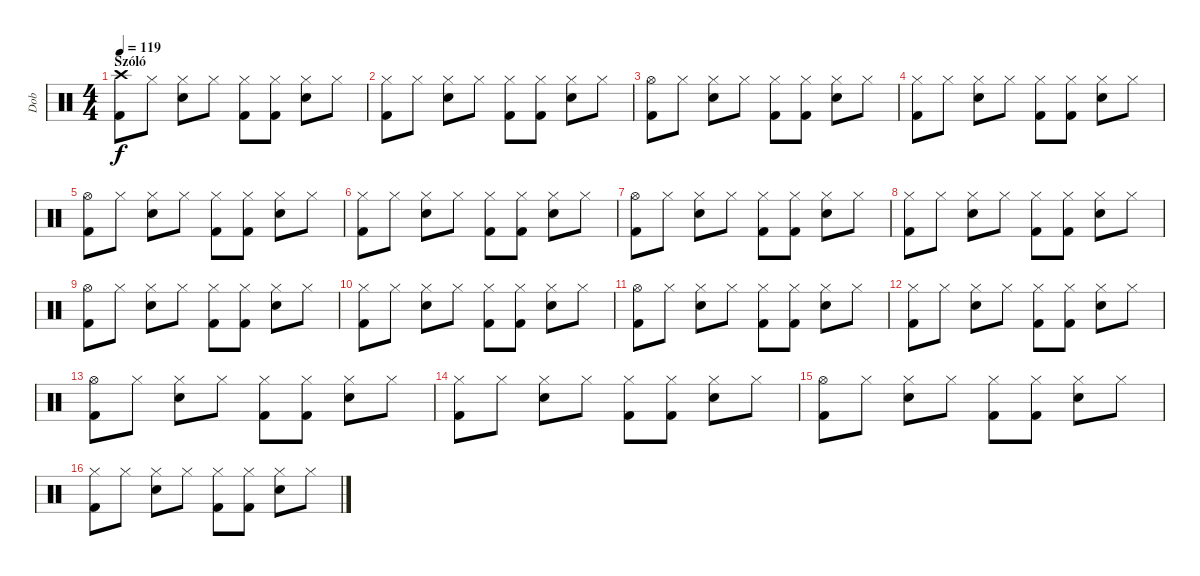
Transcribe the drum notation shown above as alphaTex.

\track ("Dob" "Dob") {instrument percussion}
\staff {score}
\articulation defaults
\ts (4 4)
\section ("" "Szóló")
\tempo 119
\clef neutral
\ks c
("Crash high (hit)" "Kick (hit) 2").8{dy f} "Hi-Hat (closed)".8 ("Hi-Hat (closed)" "Snare (hit) 2").8 "Hi-Hat (closed)".8 ("Hi-Hat (closed)" "Kick (hit) 2").8 ("Hi-Hat (closed)" "Kick (hit) 2").8 ("Hi-Hat (closed)" "Snare (hit) 2").8 "Hi-Hat (closed)".8 |
("Hi-Hat (closed)" "Kick (hit) 2").8 "Hi-Hat (closed)".8 ("Hi-Hat (closed)" "Snare (hit) 2").8 "Hi-Hat (closed)".8 ("Hi-Hat (closed)" "Kick (hit) 2").8 ("Hi-Hat (closed)" "Kick (hit) 2").8 ("Hi-Hat (closed)" "Snare (hit) 2").8 "Hi-Hat (closed)".8 |
("Hi-Hat (open)" "Kick (hit) 2").8 "Hi-Hat (closed)".8 ("Hi-Hat (closed)" "Snare (hit) 2").8 "Hi-Hat (closed)".8 ("Hi-Hat (closed)" "Kick (hit) 2").8 ("Hi-Hat (closed)" "Kick (hit) 2").8 ("Hi-Hat (closed)" "Snare (hit) 2").8 "Hi-Hat (closed)".8 |
("Hi-Hat (closed)" "Kick (hit) 2").8 "Hi-Hat (closed)".8 ("Hi-Hat (closed)" "Snare (hit) 2").8 "Hi-Hat (closed)".8 ("Hi-Hat (closed)" "Kick (hit) 2").8 ("Hi-Hat (closed)" "Kick (hit) 2").8 ("Hi-Hat (closed)" "Snare (hit) 2").8 "Hi-Hat (closed)".8 |
("Hi-Hat (open)" "Kick (hit) 2").8 "Hi-Hat (closed)".8 ("Hi-Hat (closed)" "Snare (hit) 2").8 "Hi-Hat (closed)".8 ("Hi-Hat (closed)" "Kick (hit) 2").8 ("Hi-Hat (closed)" "Kick (hit) 2").8 ("Hi-Hat (closed)" "Snare (hit) 2").8 "Hi-Hat (closed)".8 |
("Hi-Hat (closed)" "Kick (hit) 2").8 "Hi-Hat (closed)".8 ("Hi-Hat (closed)" "Snare (hit) 2").8 "Hi-Hat (closed)".8 ("Hi-Hat (closed)" "Kick (hit) 2").8 ("Hi-Hat (closed)" "Kick (hit) 2").8 ("Hi-Hat (closed)" "Snare (hit) 2").8 "Hi-Hat (closed)".8 |
("Hi-Hat (open)" "Kick (hit) 2").8 "Hi-Hat (closed)".8 ("Hi-Hat (closed)" "Snare (hit) 2").8 "Hi-Hat (closed)".8 ("Hi-Hat (closed)" "Kick (hit) 2").8 ("Hi-Hat (closed)" "Kick (hit) 2").8 ("Hi-Hat (closed)" "Snare (hit) 2").8 "Hi-Hat (closed)".8 |
("Hi-Hat (closed)" "Kick (hit) 2").8 "Hi-Hat (closed)".8 ("Hi-Hat (closed)" "Snare (hit) 2").8 "Hi-Hat (closed)".8 ("Hi-Hat (closed)" "Kick (hit) 2").8 ("Hi-Hat (closed)" "Kick (hit) 2").8 ("Hi-Hat (closed)" "Snare (hit) 2").8 "Hi-Hat (closed)".8 |
("Hi-Hat (open)" "Kick (hit) 2").8 "Hi-Hat (closed)".8 ("Hi-Hat (closed)" "Snare (hit) 2").8 "Hi-Hat (closed)".8 ("Hi-Hat (closed)" "Kick (hit) 2").8 ("Hi-Hat (closed)" "Kick (hit) 2").8 ("Hi-Hat (closed)" "Snare (hit) 2").8 "Hi-Hat (closed)".8 |
("Hi-Hat (closed)" "Kick (hit) 2").8 "Hi-Hat (closed)".8 ("Hi-Hat (closed)" "Snare (hit) 2").8 "Hi-Hat (closed)".8 ("Hi-Hat (closed)" "Kick (hit) 2").8 ("Hi-Hat (closed)" "Kick (hit) 2").8 ("Hi-Hat (closed)" "Snare (hit) 2").8 "Hi-Hat (closed)".8 |
("Hi-Hat (open)" "Kick (hit) 2").8 "Hi-Hat (closed)".8 ("Hi-Hat (closed)" "Snare (hit) 2").8 "Hi-Hat (closed)".8 ("Hi-Hat (closed)" "Kick (hit) 2").8 ("Hi-Hat (closed)" "Kick (hit) 2").8 ("Hi-Hat (closed)" "Snare (hit) 2").8 "Hi-Hat (closed)".8 |
("Hi-Hat (closed)" "Kick (hit) 2").8 "Hi-Hat (closed)".8 ("Hi-Hat (closed)" "Snare (hit) 2").8 "Hi-Hat (closed)".8 ("Hi-Hat (closed)" "Kick (hit) 2").8 ("Hi-Hat (closed)" "Kick (hit) 2").8 ("Hi-Hat (closed)" "Snare (hit) 2").8 "Hi-Hat (closed)".8 |
("Hi-Hat (open)" "Kick (hit) 2").8 "Hi-Hat (closed)".8 ("Hi-Hat (closed)" "Snare (hit) 2").8 "Hi-Hat (closed)".8 ("Hi-Hat (closed)" "Kick (hit) 2").8 ("Hi-Hat (closed)" "Kick (hit) 2").8 ("Hi-Hat (closed)" "Snare (hit) 2").8 "Hi-Hat (closed)".8 |
("Hi-Hat (closed)" "Kick (hit) 2").8 "Hi-Hat (closed)".8 ("Hi-Hat (closed)" "Snare (hit) 2").8 "Hi-Hat (closed)".8 ("Hi-Hat (closed)" "Kick (hit) 2").8 ("Hi-Hat (closed)" "Kick (hit) 2").8 ("Hi-Hat (closed)" "Snare (hit) 2").8 "Hi-Hat (closed)".8 |
("Hi-Hat (open)" "Kick (hit) 2").8 "Hi-Hat (closed)".8 ("Hi-Hat (closed)" "Snare (hit) 2").8 "Hi-Hat (closed)".8 ("Hi-Hat (closed)" "Kick (hit) 2").8 ("Hi-Hat (closed)" "Kick (hit) 2").8 ("Hi-Hat (closed)" "Snare (hit) 2").8 "Hi-Hat (closed)".8 |
("Hi-Hat (closed)" "Kick (hit) 2").8 "Hi-Hat (closed)".8 ("Hi-Hat (closed)" "Snare (hit) 2").8 "Hi-Hat (closed)".8 ("Hi-Hat (closed)" "Kick (hit) 2").8 ("Hi-Hat (closed)" "Kick (hit) 2").8 ("Hi-Hat (closed)" "Snare (hit) 2").8 "Hi-Hat (closed)".8
